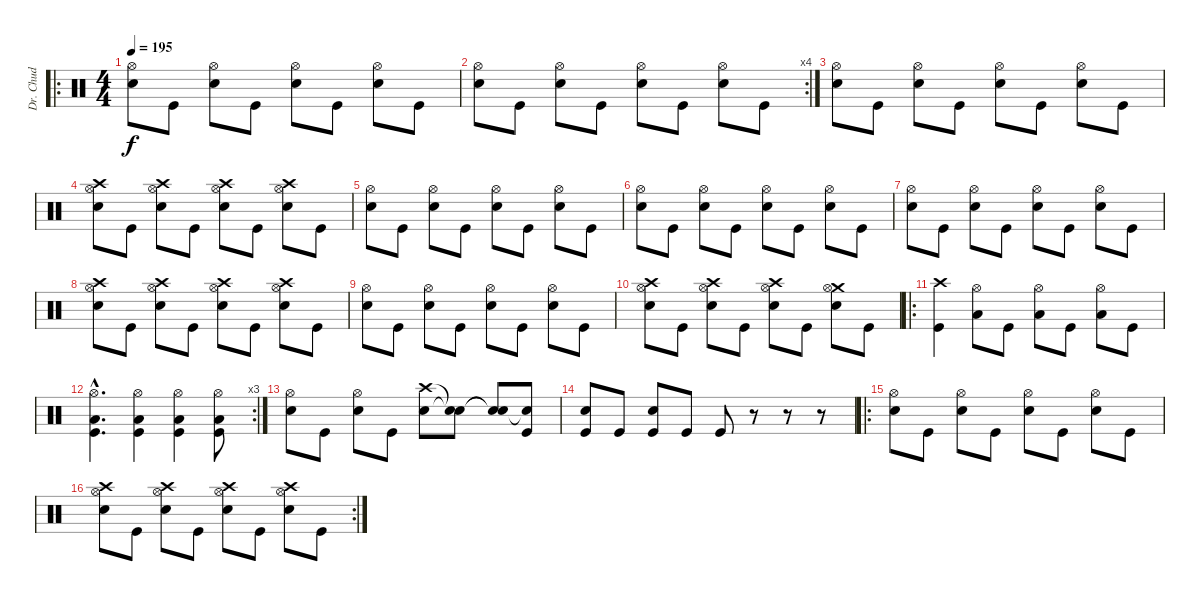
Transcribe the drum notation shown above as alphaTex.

\track ("Dr. Chud" "Dr. Chud") {instrument percussion}
\staff {score}
\articulation defaults
\ro
\ts (4 4)
\tempo 195
\clef neutral
\ks c
("Hi-Hat (open)" "Snare (hit) 2").8{dy f} "Kick (hit)".8 ("Hi-Hat (open)" "Snare (hit) 2").8 "Kick (hit)".8 ("Hi-Hat (open)" "Snare (hit) 2").8 "Kick (hit)".8 ("Hi-Hat (open)" "Snare (hit) 2").8 "Kick (hit)".8 |
\rc 4
("Hi-Hat (open)" "Snare (hit) 2").8 "Kick (hit)".8 ("Hi-Hat (open)" "Snare (hit) 2").8 "Kick (hit)".8 ("Hi-Hat (open)" "Snare (hit) 2").8 "Kick (hit)".8 ("Hi-Hat (open)" "Snare (hit) 2").8 "Kick (hit)".8 |
("Hi-Hat (open)" "Snare (hit) 2").8 "Kick (hit)".8 ("Hi-Hat (open)" "Snare (hit) 2").8 "Kick (hit)".8 ("Hi-Hat (open)" "Snare (hit) 2").8 "Kick (hit)".8 ("Hi-Hat (open)" "Snare (hit) 2").8 "Kick (hit)".8 |
("Crash high (hit)" "Hi-Hat (open)" "Snare (hit) 2").8 "Kick (hit)".8 ("Crash high (hit)" "Hi-Hat (open)" "Snare (hit) 2").8 "Kick (hit)".8 ("Crash high (hit)" "Hi-Hat (open)" "Snare (hit) 2").8 "Kick (hit)".8 ("Crash high (hit)" "Hi-Hat (open)" "Snare (hit) 2").8 "Kick (hit)".8 |
("Hi-Hat (open)" "Snare (hit) 2").8 "Kick (hit)".8 ("Hi-Hat (open)" "Snare (hit) 2").8 "Kick (hit)".8 ("Hi-Hat (open)" "Snare (hit) 2").8 "Kick (hit)".8 ("Hi-Hat (open)" "Snare (hit) 2").8 "Kick (hit)".8 |
("Hi-Hat (open)" "Snare (hit) 2").8 "Kick (hit)".8 ("Hi-Hat (open)" "Snare (hit) 2").8 "Kick (hit)".8 ("Hi-Hat (open)" "Snare (hit) 2").8 "Kick (hit)".8 ("Hi-Hat (open)" "Snare (hit) 2").8 "Kick (hit)".8 |
("Hi-Hat (open)" "Snare (hit) 2").8 "Kick (hit)".8 ("Hi-Hat (open)" "Snare (hit) 2").8 "Kick (hit)".8 ("Hi-Hat (open)" "Snare (hit) 2").8 "Kick (hit)".8 ("Hi-Hat (open)" "Snare (hit) 2").8 "Kick (hit)".8 |
("Crash high (hit)" "Hi-Hat (open)" "Snare (hit) 2").8 "Kick (hit)".8 ("Crash high (hit)" "Hi-Hat (open)" "Snare (hit) 2").8 "Kick (hit)".8 ("Crash high (hit)" "Hi-Hat (open)" "Snare (hit) 2").8 "Kick (hit)".8 ("Crash high (hit)" "Hi-Hat (open)" "Snare (hit) 2").8 "Kick (hit)".8 |
("Hi-Hat (open)" "Snare (hit) 2").8 "Kick (hit)".8 ("Hi-Hat (open)" "Snare (hit) 2").8 "Kick (hit)".8 ("Hi-Hat (open)" "Snare (hit) 2").8 "Kick (hit)".8 ("Hi-Hat (open)" "Snare (hit) 2").8 "Kick (hit)".8 |
("Crash high (hit)" "Hi-Hat (open)" "Snare (hit) 2").8 "Kick (hit)".8 ("Crash high (hit)" "Hi-Hat (open)" "Snare (hit) 2").8 "Kick (hit)".8 ("Crash high (hit)" "Hi-Hat (open)" "Snare (hit) 2").8 "Kick (hit)".8 ("Crash medium (hit)" "Hi-Hat (open)" "Snare (hit) 2").8 "Kick (hit)".8 |
\ro
("Crash high (hit)" "Kick (hit)").4 ("Hi-Hat (open)" "Low Floor Tom (hit)").8 "Kick (hit)".8 ("Hi-Hat (open)" "Low Floor Tom (hit)").8 "Kick (hit)".8 ("Hi-Hat (open)" "Low Floor Tom (hit)").8 "Kick (hit)".8 |
\rc 3
("Hi-Hat (open)"{hac} "Low Floor Tom (hit)"{hac} "Kick (hit)"{hac}).4{d} ("Hi-Hat (open)" "Low Floor Tom (hit)" "Kick (hit)").4 ("Hi-Hat (open)" "Low Floor Tom (hit)" "Kick (hit)").4 ("Hi-Hat (open)" "Low Floor Tom (hit)" "Kick (hit)").8 |
("Hi-Hat (open)" "Snare (hit) 2").8 "Kick (hit)".8 ("Hi-Hat (open)" "Snare (hit) 2").8 "Kick (hit)".8 ("Crash high (hit)" "Snare (hit) 2").8 ("Snare (hit)"{t} "Snare (hit)"{t}).8 ("Snare (hit)"{t} "Snare (hit)"{t}).8 ("Snare (hit)"{t} "Kick (hit)").8 |
("Snare (hit) 2" "Kick (hit)").8 "Kick (hit)".8 ("Snare (hit) 2" "Kick (hit)").8 "Kick (hit)".8 "Kick (hit)".8 r.8 r.8 r.8 |
\ro
("Hi-Hat (open)" "Snare (hit) 2").8 "Kick (hit)".8 ("Hi-Hat (open)" "Snare (hit) 2").8 "Kick (hit)".8 ("Hi-Hat (open)" "Snare (hit) 2").8 "Kick (hit)".8 ("Hi-Hat (open)" "Snare (hit) 2").8 "Kick (hit)".8 |
\rc 2
("Crash high (hit)" "Hi-Hat (open)" "Snare (hit) 2").8 "Kick (hit)".8 ("Crash high (hit)" "Hi-Hat (open)" "Snare (hit) 2").8 "Kick (hit)".8 ("Crash high (hit)" "Hi-Hat (open)" "Snare (hit) 2").8 "Kick (hit)".8 ("Crash high (hit)" "Hi-Hat (open)" "Snare (hit) 2").8 "Kick (hit)".8
